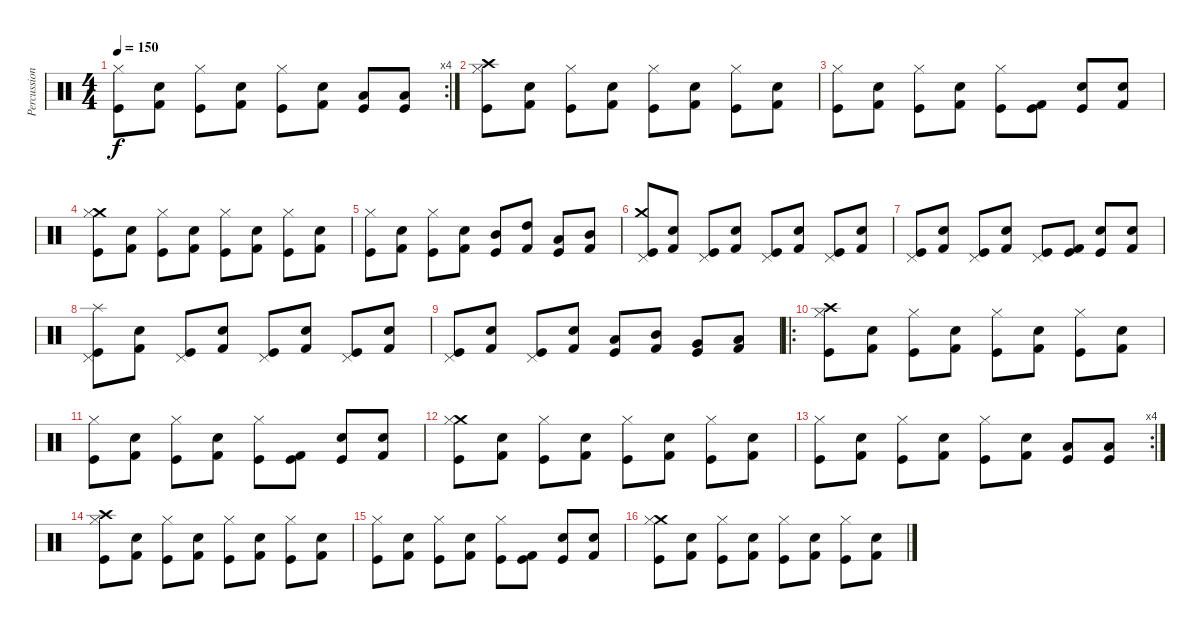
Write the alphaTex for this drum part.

\track ("Percussion" "Percussion") {instrument percussion}
\staff {score}
\articulation defaults
\rc 4
\ts (4 4)
\tempo 150
\clef neutral
\ks c
("Kick (hit)" "Hi-Hat (closed)").8{dy f} ("Kick (hit) 2" "Snare (hit) 2").8 ("Kick (hit)" "Hi-Hat (closed)").8 ("Kick (hit) 2" "Snare (hit) 2").8 ("Kick (hit)" "Hi-Hat (closed)").8 ("Kick (hit) 2" "Snare (hit) 2").8 ("Kick (hit)" "Low Tom (hit)").8 ("Kick (hit)" "Low Tom (hit)").8 |
("Crash high (hit)" "Kick (hit)" "Hi-Hat (closed)").8 ("Kick (hit) 2" "Snare (hit) 2").8 ("Kick (hit)" "Hi-Hat (closed)").8 ("Kick (hit) 2" "Snare (hit) 2").8 ("Kick (hit)" "Hi-Hat (closed)").8 ("Kick (hit) 2" "Snare (hit) 2").8 ("Kick (hit)" "Hi-Hat (closed)").8 ("Kick (hit) 2" "Snare (hit) 2").8 |
("Kick (hit)" "Hi-Hat (closed)").8 ("Kick (hit) 2" "Snare (hit) 2").8 ("Kick (hit)" "Hi-Hat (closed)").8 ("Kick (hit) 2" "Snare (hit) 2").8 ("Kick (hit)" "Hi-Hat (closed)").8 ("Kick (hit)" "Kick (hit) 2").8 ("Kick (hit)" "Snare (hit) 2").8 ("Kick (hit) 2" "Snare (hit) 2").8 |
("Crash medium (hit)" "Kick (hit)" "Hi-Hat (closed)").8 ("Kick (hit) 2" "Snare (hit) 2").8 ("Kick (hit)" "Hi-Hat (closed)").8 ("Kick (hit) 2" "Snare (hit) 2").8 ("Kick (hit)" "Hi-Hat (closed)").8 ("Kick (hit) 2" "Snare (hit) 2").8 ("Kick (hit)" "Hi-Hat (closed)").8 ("Kick (hit) 2" "Snare (hit) 2").8 |
("Kick (hit)" "Hi-Hat (closed)").8 ("Kick (hit) 2" "Snare (hit) 2").8 ("Kick (hit)" "Hi-Hat (closed)").8 ("Kick (hit) 2" "Snare (hit) 2").8 ("Kick (hit)" "Mid Tom (hit)").8 ("Kick (hit) 2" "High Tom (hit)").8 ("Kick (hit)" "Low Tom (hit)").8 ("Kick (hit) 2" "Mid Tom (hit)").8 |
("Crash medium (hit)" "Kick (hit)" "Pedal Hi-Hat (hit)").8 ("Kick (hit) 2" "Electric Snare (hit)").8 ("Kick (hit)" "Pedal Hi-Hat (hit)").8 ("Kick (hit) 2" "Electric Snare (hit)").8 ("Kick (hit)" "Pedal Hi-Hat (hit)").8 ("Kick (hit) 2" "Electric Snare (hit)").8 ("Kick (hit)" "Pedal Hi-Hat (hit)").8 ("Kick (hit) 2" "Electric Snare (hit)").8 |
("Kick (hit)" "Pedal Hi-Hat (hit)").8 ("Kick (hit) 2" "Electric Snare (hit)").8 ("Kick (hit)" "Pedal Hi-Hat (hit)").8 ("Kick (hit) 2" "Electric Snare (hit)").8 ("Kick (hit)" "Pedal Hi-Hat (hit)").8 ("Kick (hit)" "Kick (hit) 2").8 ("Kick (hit)" "Electric Snare (hit)").8 ("Kick (hit) 2" "Electric Snare (hit)").8 |
("Splash (hit)" "Kick (hit)" "Pedal Hi-Hat (hit)").8 ("Kick (hit) 2" "Electric Snare (hit)").8 ("Kick (hit)" "Pedal Hi-Hat (hit)").8 ("Kick (hit) 2" "Electric Snare (hit)").8 ("Kick (hit)" "Pedal Hi-Hat (hit)").8 ("Kick (hit) 2" "Electric Snare (hit)").8 ("Kick (hit)" "Pedal Hi-Hat (hit)").8 ("Kick (hit) 2" "Electric Snare (hit)").8 |
("Kick (hit)" "Pedal Hi-Hat (hit)").8 ("Kick (hit) 2" "Electric Snare (hit)").8 ("Kick (hit)" "Pedal Hi-Hat (hit)").8 ("Kick (hit) 2" "Electric Snare (hit)").8 ("Kick (hit)" "Low Tom (hit)").8 ("Kick (hit) 2" "Mid Tom (hit)").8 ("Kick (hit)" "Very Low Tom (hit)").8 ("Kick (hit) 2" "Low Tom (hit)").8 |
\ro
("Crash high (hit)" "Kick (hit)" "Hi-Hat (closed)").8 ("Kick (hit) 2" "Snare (hit) 2").8 ("Kick (hit)" "Hi-Hat (closed)").8 ("Kick (hit) 2" "Snare (hit) 2").8 ("Kick (hit)" "Hi-Hat (closed)").8 ("Kick (hit) 2" "Snare (hit) 2").8 ("Kick (hit)" "Hi-Hat (closed)").8 ("Kick (hit) 2" "Snare (hit) 2").8 |
("Kick (hit)" "Hi-Hat (closed)").8 ("Kick (hit) 2" "Snare (hit) 2").8 ("Kick (hit)" "Hi-Hat (closed)").8 ("Kick (hit) 2" "Snare (hit) 2").8 ("Kick (hit)" "Hi-Hat (closed)").8 ("Kick (hit)" "Kick (hit) 2").8 ("Kick (hit)" "Snare (hit) 2").8 ("Kick (hit) 2" "Snare (hit) 2").8 |
("Crash medium (hit)" "Kick (hit)" "Hi-Hat (closed)").8 ("Kick (hit) 2" "Snare (hit) 2").8 ("Kick (hit)" "Hi-Hat (closed)").8 ("Kick (hit) 2" "Snare (hit) 2").8 ("Kick (hit)" "Hi-Hat (closed)").8 ("Kick (hit) 2" "Snare (hit) 2").8 ("Kick (hit)" "Hi-Hat (closed)").8 ("Kick (hit) 2" "Snare (hit) 2").8 |
\rc 4
("Kick (hit)" "Hi-Hat (closed)").8 ("Kick (hit) 2" "Snare (hit) 2").8 ("Kick (hit)" "Hi-Hat (closed)").8 ("Kick (hit) 2" "Snare (hit) 2").8 ("Kick (hit)" "Hi-Hat (closed)").8 ("Kick (hit) 2" "Snare (hit) 2").8 ("Kick (hit)" "Low Tom (hit)").8 ("Kick (hit)" "Low Tom (hit)").8 |
("Crash high (hit)" "Kick (hit)" "Hi-Hat (closed)").8 ("Kick (hit) 2" "Snare (hit) 2").8 ("Kick (hit)" "Hi-Hat (closed)").8 ("Kick (hit) 2" "Snare (hit) 2").8 ("Kick (hit)" "Hi-Hat (closed)").8 ("Kick (hit) 2" "Snare (hit) 2").8 ("Kick (hit)" "Hi-Hat (closed)").8 ("Kick (hit) 2" "Snare (hit) 2").8 |
("Kick (hit)" "Hi-Hat (closed)").8 ("Kick (hit) 2" "Snare (hit) 2").8 ("Kick (hit)" "Hi-Hat (closed)").8 ("Kick (hit) 2" "Snare (hit) 2").8 ("Kick (hit)" "Hi-Hat (closed)").8 ("Kick (hit)" "Kick (hit) 2").8 ("Kick (hit)" "Snare (hit) 2").8 ("Kick (hit) 2" "Snare (hit) 2").8 |
("Crash medium (hit)" "Kick (hit)" "Hi-Hat (closed)").8 ("Kick (hit) 2" "Snare (hit) 2").8 ("Kick (hit)" "Hi-Hat (closed)").8 ("Kick (hit) 2" "Snare (hit) 2").8 ("Kick (hit)" "Hi-Hat (closed)").8 ("Kick (hit) 2" "Snare (hit) 2").8 ("Kick (hit)" "Hi-Hat (closed)").8 ("Kick (hit) 2" "Snare (hit) 2").8
